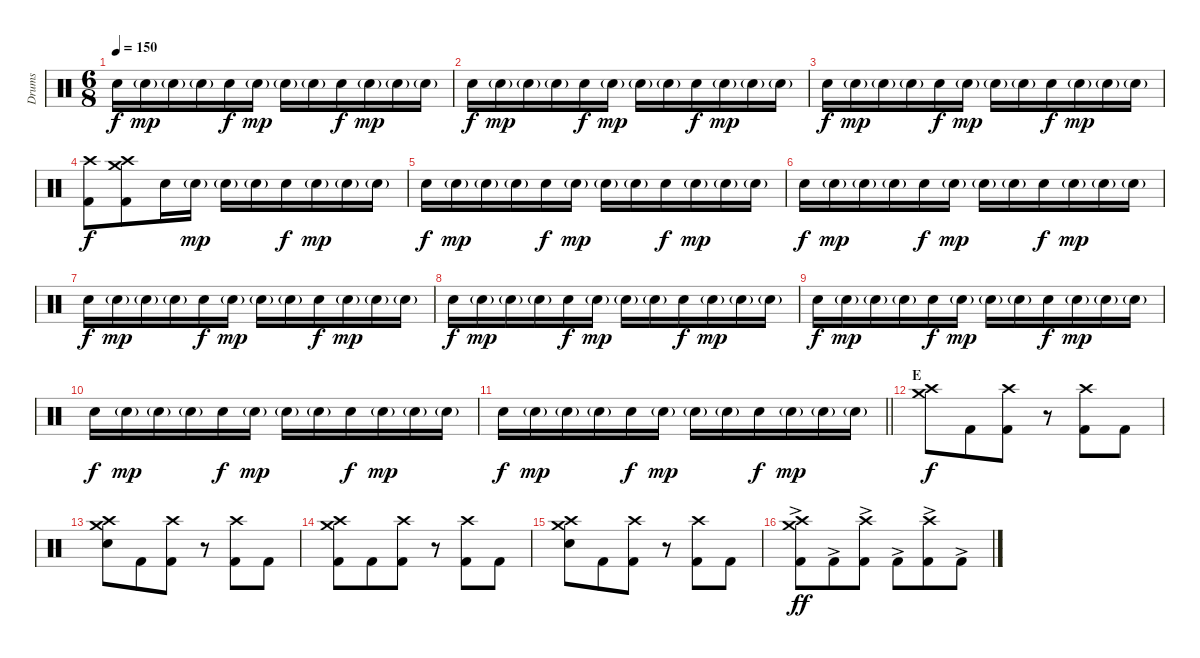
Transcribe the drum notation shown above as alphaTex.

\track ("Drums" "Drums") {mute instrument percussion}
\staff {score}
\articulation defaults
\ts (6 8)
\tempo 150
\clef neutral
\ks c "Electric Snare (hit)".16{dy f} "Electric Snare (hit)"{g}.16{dy mp} "Electric Snare (hit)"{g}.16 "Electric Snare (hit)"{g}.16 "Electric Snare (hit)".16{dy f} "Electric Snare (hit)"{g}.16{dy mp} "Electric Snare (hit)"{g}.16 "Electric Snare (hit)"{g}.16 "Electric Snare (hit)".16{dy f} "Electric Snare (hit)"{g}.16{dy mp} "Electric Snare (hit)"{g}.16 "Electric Snare (hit)"{g}.16
|
"Electric Snare (hit)".16{dy f} "Electric Snare (hit)"{g}.16{dy mp} "Electric Snare (hit)"{g}.16 "Electric Snare (hit)"{g}.16 "Electric Snare (hit)".16{dy f} "Electric Snare (hit)"{g}.16{dy mp} "Electric Snare (hit)"{g}.16 "Electric Snare (hit)"{g}.16 "Electric Snare (hit)".16{dy f} "Electric Snare (hit)"{g}.16{dy mp} "Electric Snare (hit)"{g}.16 "Electric Snare (hit)"{g}.16 |
"Electric Snare (hit)".16{dy f} "Electric Snare (hit)"{g}.16{dy mp} "Electric Snare (hit)"{g}.16 "Electric Snare (hit)"{g}.16 "Electric Snare (hit)".16{dy f} "Electric Snare (hit)"{g}.16{dy mp} "Electric Snare (hit)"{g}.16 "Electric Snare (hit)"{g}.16 "Electric Snare (hit)".16{dy f} "Electric Snare (hit)"{g}.16{dy mp} "Electric Snare (hit)"{g}.16 "Electric Snare (hit)"{g}.16 |
("Crash high (hit)" "Kick (hit) 2").8{dy f} ("Crash medium (hit)" "Crash high (hit)" "Kick (hit) 2").8 "Electric Snare (hit)".16 "Electric Snare (hit)"{g}.16{dy mp} "Electric Snare (hit)"{g}.16 "Electric Snare (hit)"{g}.16 "Electric Snare (hit)".16{dy f} "Electric Snare (hit)"{g}.16{dy mp} "Electric Snare (hit)"{g}.16 "Electric Snare (hit)"{g}.16 |
"Electric Snare (hit)".16{dy f} "Electric Snare (hit)"{g}.16{dy mp} "Electric Snare (hit)"{g}.16 "Electric Snare (hit)"{g}.16 "Electric Snare (hit)".16{dy f} "Electric Snare (hit)"{g}.16{dy mp} "Electric Snare (hit)"{g}.16 "Electric Snare (hit)"{g}.16 "Electric Snare (hit)".16{dy f} "Electric Snare (hit)"{g}.16{dy mp} "Electric Snare (hit)"{g}.16 "Electric Snare (hit)"{g}.16 |
"Electric Snare (hit)".16{dy f} "Electric Snare (hit)"{g}.16{dy mp} "Electric Snare (hit)"{g}.16 "Electric Snare (hit)"{g}.16 "Electric Snare (hit)".16{dy f} "Electric Snare (hit)"{g}.16{dy mp} "Electric Snare (hit)"{g}.16 "Electric Snare (hit)"{g}.16 "Electric Snare (hit)".16{dy f} "Electric Snare (hit)"{g}.16{dy mp} "Electric Snare (hit)"{g}.16 "Electric Snare (hit)"{g}.16 |
"Electric Snare (hit)".16{dy f} "Electric Snare (hit)"{g}.16{dy mp} "Electric Snare (hit)"{g}.16 "Electric Snare (hit)"{g}.16 "Electric Snare (hit)".16{dy f} "Electric Snare (hit)"{g}.16{dy mp} "Electric Snare (hit)"{g}.16 "Electric Snare (hit)"{g}.16 "Electric Snare (hit)".16{dy f} "Electric Snare (hit)"{g}.16{dy mp} "Electric Snare (hit)"{g}.16 "Electric Snare (hit)"{g}.16 |
"Electric Snare (hit)".16{dy f} "Electric Snare (hit)"{g}.16{dy mp} "Electric Snare (hit)"{g}.16 "Electric Snare (hit)"{g}.16 "Electric Snare (hit)".16{dy f} "Electric Snare (hit)"{g}.16{dy mp} "Electric Snare (hit)"{g}.16 "Electric Snare (hit)"{g}.16 "Electric Snare (hit)".16{dy f} "Electric Snare (hit)"{g}.16{dy mp} "Electric Snare (hit)"{g}.16 "Electric Snare (hit)"{g}.16 |
"Electric Snare (hit)".16{dy f} "Electric Snare (hit)"{g}.16{dy mp} "Electric Snare (hit)"{g}.16 "Electric Snare (hit)"{g}.16 "Electric Snare (hit)".16{dy f} "Electric Snare (hit)"{g}.16{dy mp} "Electric Snare (hit)"{g}.16 "Electric Snare (hit)"{g}.16 "Electric Snare (hit)".16{dy f} "Electric Snare (hit)"{g}.16{dy mp} "Electric Snare (hit)"{g}.16 "Electric Snare (hit)"{g}.16 |
"Electric Snare (hit)".16{dy f} "Electric Snare (hit)"{g}.16{dy mp} "Electric Snare (hit)"{g}.16 "Electric Snare (hit)"{g}.16 "Electric Snare (hit)".16{dy f} "Electric Snare (hit)"{g}.16{dy mp} "Electric Snare (hit)"{g}.16 "Electric Snare (hit)"{g}.16 "Electric Snare (hit)".16{dy f} "Electric Snare (hit)"{g}.16{dy mp} "Electric Snare (hit)"{g}.16 "Electric Snare (hit)"{g}.16 |
\barLineRight lightlight "Electric Snare (hit)".16{dy f} "Electric Snare (hit)"{g}.16{dy mp} "Electric Snare (hit)"{g}.16 "Electric Snare (hit)"{g}.16 "Electric Snare (hit)".16{dy f} "Electric Snare (hit)"{g}.16{dy mp} "Electric Snare (hit)"{g}.16 "Electric Snare (hit)"{g}.16 "Electric Snare (hit)".16{dy f} "Electric Snare (hit)"{g}.16{dy mp} "Electric Snare (hit)"{g}.16 "Electric Snare (hit)"{g}.16
|
\section ("" "E")
("Crash medium (hit)" "Crash high (hit)").8{dy f} "Kick (hit) 2".8 ("Crash high (hit)" "Kick (hit) 2").8 r.8 ("Crash high (hit)" "Kick (hit) 2").8 "Kick (hit) 2".8 |
("Crash medium (hit)" "Crash high (hit)" "Electric Snare (hit)").8 "Kick (hit) 2".8 ("Crash high (hit)" "Kick (hit) 2").8 r.8 ("Crash high (hit)" "Kick (hit) 2").8 "Kick (hit) 2".8 |
("Crash medium (hit)" "Crash high (hit)" "Kick (hit) 2").8 "Kick (hit) 2".8 ("Crash high (hit)" "Kick (hit) 2").8 r.8 ("Crash high (hit)" "Kick (hit) 2").8 "Kick (hit) 2".8 |
("Crash medium (hit)" "Crash high (hit)" "Electric Snare (hit)").8 "Kick (hit) 2".8 ("Crash high (hit)" "Kick (hit) 2").8 r.8 ("Crash high (hit)" "Kick (hit) 2").8 "Kick (hit) 2".8 |
("Crash medium (hit)" "Crash high (hit)" "Kick (hit) 2"{ac}).8{dy ff} "Kick (hit) 2"{ac}.8 ("Crash high (hit)" "Kick (hit) 2"{ac}).8 "Kick (hit) 2"{ac}.8 ("Crash high (hit)" "Kick (hit) 2"{ac}).8 "Kick (hit) 2"{ac}.8
